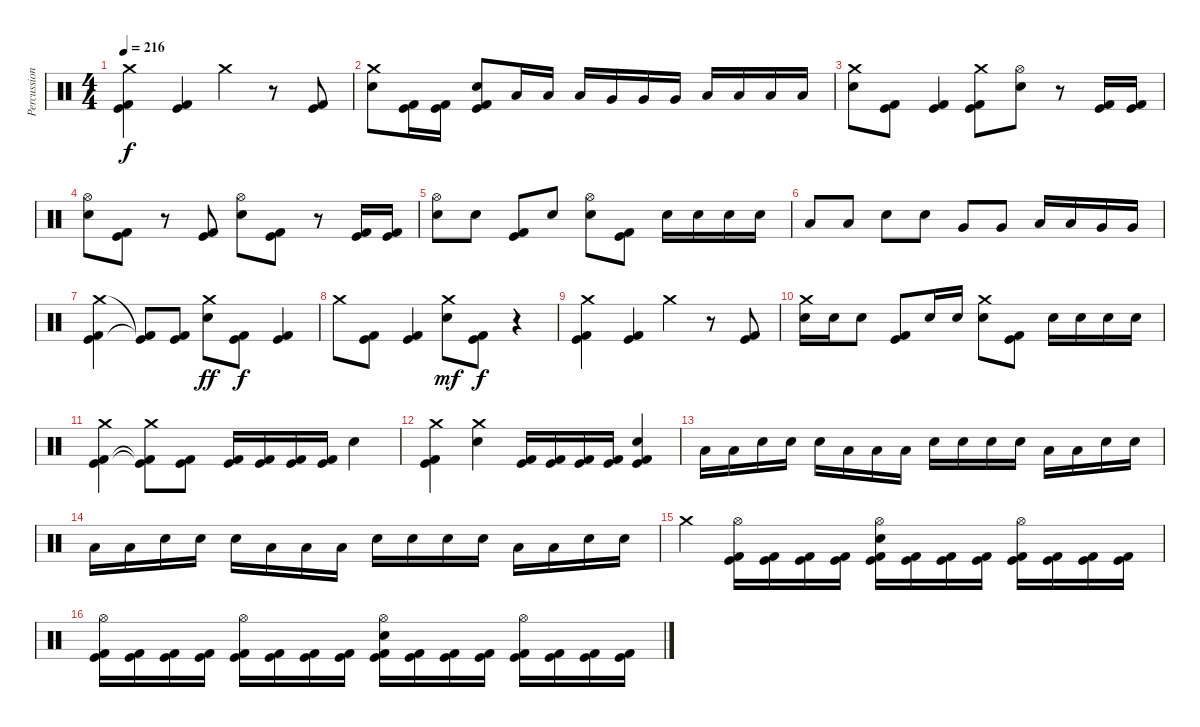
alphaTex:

\track ("Percussion" "Percussion") {instrument percussion}
\staff {score}
\articulation defaults
\ts (4 4)
\tempo 216
\clef neutral
\ks c
("Crash medium (hit)" "Kick (hit)" "Kick (hit) 2").4{dy f} ("Kick (hit)" "Kick (hit) 2").4 "Crash medium (hit)".4 r.8 ("Kick (hit)" "Kick (hit) 2").8 |
("Crash medium (hit)" "Electric Snare (hit)").8 ("Kick (hit)" "Kick (hit) 2").16 ("Kick (hit)" "Kick (hit) 2").16 ("Electric Snare (hit)" "Kick (hit)" "Kick (hit) 2").8 "Low Tom (hit)".16 "Low Tom (hit)".16 "Low Tom (hit)".16 "Very Low Tom (hit)".16 "Very Low Tom (hit)".16 "Very Low Tom (hit)".16 "Low Floor Tom (hit)".16 "Low Floor Tom (hit)".16 "Low Floor Tom (hit)".16 "Low Floor Tom (hit)".16 |
("Crash medium (hit)" "Electric Snare (hit)").8 ("Kick (hit)" "Kick (hit) 2").8 ("Kick (hit)" "Kick (hit) 2").4 ("Crash medium (hit)" "Kick (hit)" "Kick (hit) 2").8 ("Hi-Hat (open)" "Electric Snare (hit)").8 r.8 ("Kick (hit)" "Kick (hit) 2").16 ("Kick (hit)" "Kick (hit) 2").16 |
("Hi-Hat (open)" "Electric Snare (hit)").8 ("Kick (hit)" "Kick (hit) 2").8 r.8 ("Kick (hit)" "Kick (hit) 2").8 ("Hi-Hat (open)" "Electric Snare (hit)").8 ("Kick (hit)" "Kick (hit) 2").8 r.8 ("Kick (hit)" "Kick (hit) 2").16 ("Kick (hit)" "Kick (hit) 2").16 |
("Hi-Hat (open)" "Electric Snare (hit)").8 "Electric Snare (hit)".8 ("Kick (hit)" "Kick (hit) 2").8 "Electric Snare (hit)".8 ("Hi-Hat (open)" "Electric Snare (hit)").8 ("Kick (hit)" "Kick (hit) 2").8 "Electric Snare (hit)".16 "Electric Snare (hit)".16 "Electric Snare (hit)".16 "Electric Snare (hit)".16 |
"Low Tom (hit)".8 "Low Tom (hit)".8 "Electric Snare (hit)".8 "Electric Snare (hit)".8 "Very Low Tom (hit)".8 "Very Low Tom (hit)".8 "Low Tom (hit)".16 "Low Tom (hit)".16 "Very Low Tom (hit)".16 "Very Low Tom (hit)".16 |
("Crash medium (hit)" "Kick (hit)" "Kick (hit) 2").4 ("Kick (hit)"{t} "Kick (hit) 2"{t}).8 ("Kick (hit)" "Kick (hit) 2").8 ("Crash medium (hit)" "Electric Snare (hit)").8{dy ff} ("Kick (hit)" "Kick (hit) 2").8{dy f} ("Kick (hit)" "Kick (hit) 2").4 |
"Crash medium (hit)".8 ("Kick (hit)" "Kick (hit) 2").8 ("Kick (hit)" "Kick (hit) 2").4 ("Crash medium (hit)" "Electric Snare (hit)").8{dy mf} ("Kick (hit)" "Kick (hit) 2").8{dy f} r.4 |
("Crash medium (hit)" "Kick (hit)" "Kick (hit) 2").4 ("Kick (hit)" "Kick (hit) 2").4 "Crash medium (hit)".4 r.8 ("Kick (hit)" "Kick (hit) 2").8 |
("Crash medium (hit)" "Electric Snare (hit)").16 "Electric Snare (hit)".16 "Electric Snare (hit)".8 ("Kick (hit)" "Kick (hit) 2").8 "Electric Snare (hit)".16 "Electric Snare (hit)".16 ("Crash medium (hit)" "Electric Snare (hit)").8 ("Kick (hit)" "Kick (hit) 2").8 "Electric Snare (hit)".16 "Electric Snare (hit)".16 "Electric Snare (hit)".16 "Electric Snare (hit)".16 |
("Crash medium (hit)" "Kick (hit)" "Kick (hit) 2").4 ("Crash medium (hit)" "Kick (hit)"{t} "Kick (hit) 2"{t}).8 ("Kick (hit)" "Kick (hit) 2").8 ("Kick (hit)" "Kick (hit) 2").16 ("Kick (hit)" "Kick (hit) 2").16 ("Kick (hit)" "Kick (hit) 2").16 ("Kick (hit)" "Kick (hit) 2").16 "Electric Snare (hit)".4 |
("Crash medium (hit)" "Kick (hit)" "Kick (hit) 2").4 ("Crash medium (hit)" "Electric Snare (hit)").4 ("Kick (hit)" "Kick (hit) 2").16 ("Kick (hit)" "Kick (hit) 2").16 ("Kick (hit)" "Kick (hit) 2").16 ("Kick (hit)" "Kick (hit) 2").16 ("Electric Snare (hit)" "Kick (hit)" "Kick (hit) 2").4 |
"Low Tom (hit)".16 "Low Tom (hit)".16 "Electric Snare (hit)".16 "Electric Snare (hit)".16 "Electric Snare (hit)".16 "Low Floor Tom (hit)".16 "Low Floor Tom (hit)".16 "Low Floor Tom (hit)".16 "Electric Snare (hit)".16 "Electric Snare (hit)".16 "Electric Snare (hit)".16 "Electric Snare (hit)".16 "Low Tom (hit)".16 "Low Tom (hit)".16 "Electric Snare (hit)".16 "Electric Snare (hit)".16 |
"Low Tom (hit)".16 "Low Tom (hit)".16 "Electric Snare (hit)".16 "Electric Snare (hit)".16 "Electric Snare (hit)".16 "Low Floor Tom (hit)".16 "Low Floor Tom (hit)".16 "Low Floor Tom (hit)".16 "Electric Snare (hit)".16 "Electric Snare (hit)".16 "Electric Snare (hit)".16 "Electric Snare (hit)".16 "Low Tom (hit)".16 "Low Tom (hit)".16 "Electric Snare (hit)".16 "Electric Snare (hit)".16 |
"Crash medium (hit)".4 ("Hi-Hat (open)" "Kick (hit)" "Kick (hit) 2").16 ("Kick (hit)" "Kick (hit) 2").16 ("Kick (hit)" "Kick (hit) 2").16 ("Kick (hit)" "Kick (hit) 2").16 ("Hi-Hat (open)" "Electric Snare (hit)" "Kick (hit)" "Kick (hit) 2").16 ("Kick (hit)" "Kick (hit) 2").16 ("Kick (hit)" "Kick (hit) 2").16 ("Kick (hit)" "Kick (hit) 2").16 ("Hi-Hat (open)" "Kick (hit)" "Kick (hit) 2").16 ("Kick (hit)" "Kick (hit) 2").16 ("Kick (hit)" "Kick (hit) 2").16 ("Kick (hit)" "Kick (hit) 2").16 |
("Hi-Hat (open)" "Kick (hit)" "Kick (hit) 2").16 ("Kick (hit)" "Kick (hit) 2").16 ("Kick (hit)" "Kick (hit) 2").16 ("Kick (hit)" "Kick (hit) 2").16 ("Hi-Hat (open)" "Kick (hit)" "Kick (hit) 2").16 ("Kick (hit)" "Kick (hit) 2").16 ("Kick (hit)" "Kick (hit) 2").16 ("Kick (hit)" "Kick (hit) 2").16 ("Hi-Hat (open)" "Electric Snare (hit)" "Kick (hit)" "Kick (hit) 2").16 ("Kick (hit)" "Kick (hit) 2").16 ("Kick (hit)" "Kick (hit) 2").16 ("Kick (hit)" "Kick (hit) 2").16 ("Hi-Hat (open)" "Kick (hit)" "Kick (hit) 2").16 ("Kick (hit)" "Kick (hit) 2").16 ("Kick (hit)" "Kick (hit) 2").16 ("Kick (hit)" "Kick (hit) 2").16
